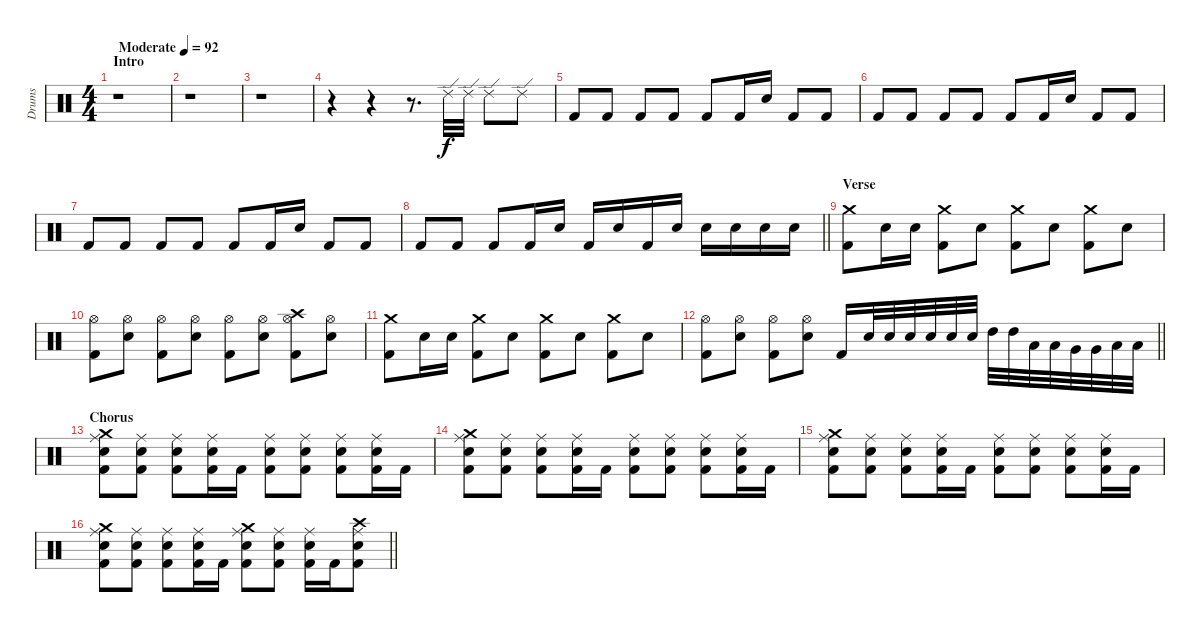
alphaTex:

\track ("Drums" "Drums") {instrument percussion}
\staff {score}
\articulation defaults
\ts (4 4)
\section ("" "Intro")
\tempo (92 "Moderate")
\clef neutral
\ks c
r.1{dy f} |
r.1 |
r.1 |
r.4 r.4 r.8{d} "Ride (edge) 2".32 "Ride (edge) 2".32 "Ride (edge) 2".8 "Ride (edge) 2".8 |
"Kick (hit) 2".8 "Kick (hit) 2".8 "Kick (hit) 2".8 "Kick (hit) 2".8 "Kick (hit) 2".8 "Kick (hit) 2".16 "Electric Snare (hit)".16 "Kick (hit) 2".8 "Kick (hit) 2".8 |
"Kick (hit) 2".8 "Kick (hit) 2".8 "Kick (hit) 2".8 "Kick (hit) 2".8 "Kick (hit) 2".8 "Kick (hit) 2".16 "Electric Snare (hit)".16 "Kick (hit) 2".8 "Kick (hit) 2".8 |
"Kick (hit) 2".8 "Kick (hit) 2".8 "Kick (hit) 2".8 "Kick (hit) 2".8 "Kick (hit) 2".8 "Kick (hit) 2".16 "Electric Snare (hit)".16 "Kick (hit) 2".8 "Kick (hit) 2".8 |
\barLineRight lightlight "Kick (hit) 2".8 "Kick (hit) 2".8 "Kick (hit) 2".8 "Kick (hit) 2".16 "Electric Snare (hit)".16 "Kick (hit) 2".16 "Electric Snare (hit)".16 "Kick (hit) 2".16 "Electric Snare (hit)".16 "Electric Snare (hit)".16 "Electric Snare (hit)".16 "Electric Snare (hit)".16 "Electric Snare (hit)".16
|
\section ("" "Verse")
("Crash medium (hit)" "Kick (hit) 2").8 "Electric Snare (hit)".16 "Electric Snare (hit)".16 ("Crash medium (hit)" "Kick (hit) 2").8 "Electric Snare (hit)".8 ("Crash medium (hit)" "Kick (hit) 2").8 "Electric Snare (hit)".8 ("Crash medium (hit)" "Kick (hit) 2").8 "Electric Snare (hit)".8 |
("Hi-Hat (open)" "Kick (hit) 2").8 ("Hi-Hat (open)" "Electric Snare (hit)").8 ("Hi-Hat (open)" "Kick (hit) 2").8 ("Hi-Hat (open)" "Electric Snare (hit)").8 ("Hi-Hat (open)" "Kick (hit) 2").8 ("Hi-Hat (open)" "Electric Snare (hit)").8 ("Crash high (hit)" "Hi-Hat (open)" "Kick (hit) 2").8 ("Hi-Hat (open)" "Electric Snare (hit)").8 |
("Crash medium (hit)" "Kick (hit) 2").8 "Electric Snare (hit)".16 "Electric Snare (hit)".16 ("Crash medium (hit)" "Kick (hit) 2").8 "Electric Snare (hit)".8 ("Crash medium (hit)" "Kick (hit) 2").8 "Electric Snare (hit)".8 ("Crash medium (hit)" "Kick (hit) 2").8 "Electric Snare (hit)".8 |
\barLineRight lightlight
("Hi-Hat (open)" "Kick (hit) 2").8 ("Hi-Hat (open)" "Electric Snare (hit)").8 ("Hi-Hat (open)" "Kick (hit) 2").8 ("Hi-Hat (open)" "Electric Snare (hit)").8 "Kick (hit) 2".16 "Electric Snare (hit)".32 "Electric Snare (hit)".32 "Electric Snare (hit)".32 "Electric Snare (hit)".32 "Electric Snare (hit)".32 "Electric Snare (hit)".32 "High Tom (hit)".32 "High Tom (hit)".32 "Low Tom (hit)".32 "Low Tom (hit)".32 "Very Low Tom (hit)".32 "Very Low Tom (hit)".32 "Low Floor Tom (hit)".32 "Low Floor Tom (hit)".32 |
\section ("" "Chorus")
("Crash medium (hit)" "Ride (middle)" "Electric Snare (hit)" "Kick (hit) 2").8 ("Ride (middle)" "Electric Snare (hit)" "Kick (hit) 2").8 ("Ride (middle)" "Electric Snare (hit)" "Kick (hit) 2").8 ("Ride (middle)" "Electric Snare (hit)" "Kick (hit) 2").16 "Kick (hit) 2".16 ("Ride (middle)" "Electric Snare (hit)" "Kick (hit) 2").8 ("Ride (middle)" "Electric Snare (hit)" "Kick (hit) 2").8 ("Ride (middle)" "Electric Snare (hit)" "Kick (hit) 2").8 ("Ride (middle)" "Electric Snare (hit)" "Kick (hit) 2").16 "Kick (hit) 2".16 |
("Crash medium (hit)" "Ride (middle)" "Electric Snare (hit)" "Kick (hit) 2").8 ("Ride (middle)" "Electric Snare (hit)" "Kick (hit) 2").8 ("Ride (middle)" "Electric Snare (hit)" "Kick (hit) 2").8 ("Ride (middle)" "Electric Snare (hit)" "Kick (hit) 2").16 "Kick (hit) 2".16 ("Ride (middle)" "Electric Snare (hit)" "Kick (hit) 2").8 ("Ride (middle)" "Electric Snare (hit)" "Kick (hit) 2").8 ("Ride (middle)" "Electric Snare (hit)" "Kick (hit) 2").8 ("Ride (middle)" "Electric Snare (hit)" "Kick (hit) 2").16 "Kick (hit) 2".16 |
("Crash medium (hit)" "Ride (middle)" "Electric Snare (hit)" "Kick (hit) 2").8 ("Ride (middle)" "Electric Snare (hit)" "Kick (hit) 2").8 ("Ride (middle)" "Electric Snare (hit)" "Kick (hit) 2").8 ("Ride (middle)" "Electric Snare (hit)" "Kick (hit) 2").16 "Kick (hit) 2".16 ("Ride (middle)" "Electric Snare (hit)" "Kick (hit) 2").8 ("Ride (middle)" "Electric Snare (hit)" "Kick (hit) 2").8 ("Ride (middle)" "Electric Snare (hit)" "Kick (hit) 2").8 ("Ride (middle)" "Electric Snare (hit)" "Kick (hit) 2").16 "Kick (hit) 2".16 |
\barLineRight lightlight
("Crash medium (hit)" "Ride (middle)" "Electric Snare (hit)" "Kick (hit) 2").8 ("Ride (middle)" "Electric Snare (hit)" "Kick (hit) 2").8 ("Ride (middle)" "Electric Snare (hit)" "Kick (hit) 2").8 ("Ride (middle)" "Electric Snare (hit)" "Kick (hit) 2").16 "Kick (hit) 2".16 ("Crash medium (hit)" "Ride (middle)" "Electric Snare (hit)" "Kick (hit) 2").8 ("Ride (middle)" "Electric Snare (hit)" "Kick (hit) 2").8 ("Ride (middle)" "Electric Snare (hit)" "Kick (hit) 2").16 "Kick (hit) 2".16 ("Crash high (hit)" "Ride (middle)" "Electric Snare (hit)" "Kick (hit) 2").8
